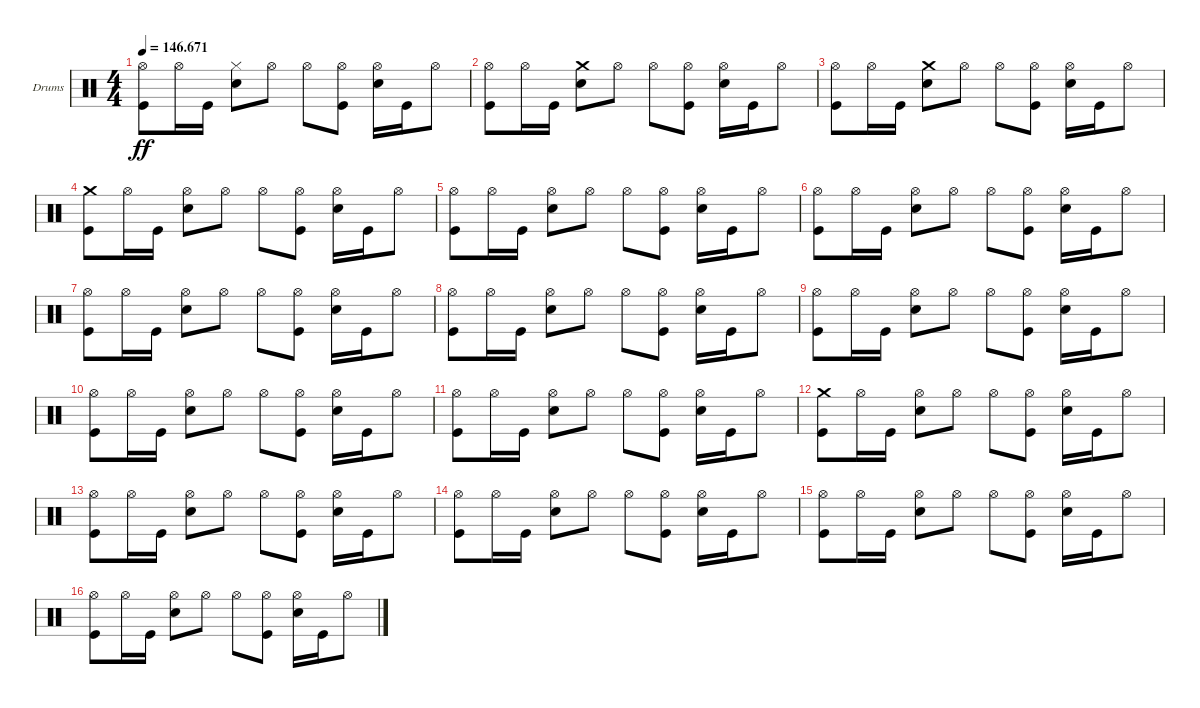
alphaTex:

\bracketExtendMode groupsimilarinstruments
\firstSystemTrackNameOrientation horizontal
\otherSystemsTrackNameOrientation horizontal
\track ("Drumkit" "Drums") {instrument percussion}
\staff {score}
\articulation defaults
\ts (4 4)
\tempo
146.671
\accidentals auto
\clef neutral
\ottava regular
\simile none
\ks c
("Hi-Hat (open)" "Kick (hit)").8{dy ff} "Hi-Hat (open)".16 "Kick (hit)".16 ("Hi-Hat (closed)" "Snare (hit) 2").8 "Hi-Hat (open)".8 "Hi-Hat (open)".8 ("Hi-Hat (open)" "Kick (hit)").8 ("Hi-Hat (open)" "Snare (hit) 2").16 "Kick (hit)".16 "Hi-Hat (open)".8 |
("Hi-Hat (open)" "Kick (hit)").8 "Hi-Hat (open)".16 "Kick (hit)".16 ("Crash medium (hit)" "Snare (hit) 2").8 "Hi-Hat (open)".8 "Hi-Hat (open)".8 ("Hi-Hat (open)" "Kick (hit)").8 ("Hi-Hat (open)" "Snare (hit) 2").16 "Kick (hit)".16 "Hi-Hat (open)".8 |
("Hi-Hat (open)" "Kick (hit)").8 "Hi-Hat (open)".16 "Kick (hit)".16 ("Crash medium (hit)" "Snare (hit) 2").8 "Hi-Hat (open)".8 "Hi-Hat (open)".8 ("Hi-Hat (open)" "Kick (hit)").8 ("Hi-Hat (open)" "Snare (hit) 2").16 "Kick (hit)".16 "Hi-Hat (open)".8 |
("Crash medium (hit)" "Kick (hit)").8 "Hi-Hat (open)".16 "Kick (hit)".16 ("Hi-Hat (open)" "Snare (hit) 2").8 "Hi-Hat (open)".8 "Hi-Hat (open)".8 ("Hi-Hat (open)" "Kick (hit)").8 ("Hi-Hat (open)" "Snare (hit) 2").16 "Kick (hit)".16 "Hi-Hat (open)".8 |
("Hi-Hat (open)" "Kick (hit)").8 "Hi-Hat (open)".16 "Kick (hit)".16 ("Hi-Hat (open)" "Snare (hit) 2").8 "Hi-Hat (open)".8 "Hi-Hat (open)".8 ("Hi-Hat (open)" "Kick (hit)").8 ("Hi-Hat (open)" "Snare (hit) 2").16 "Kick (hit)".16 "Hi-Hat (open)".8 |
("Hi-Hat (open)" "Kick (hit)").8 "Hi-Hat (open)".16 "Kick (hit)".16 ("Hi-Hat (open)" "Snare (hit) 2").8 "Hi-Hat (open)".8 "Hi-Hat (open)".8 ("Hi-Hat (open)" "Kick (hit)").8 ("Hi-Hat (open)" "Snare (hit) 2").16 "Kick (hit)".16 "Hi-Hat (open)".8 |
("Hi-Hat (open)" "Kick (hit)").8 "Hi-Hat (open)".16 "Kick (hit)".16 ("Hi-Hat (open)" "Snare (hit) 2").8 "Hi-Hat (open)".8 "Hi-Hat (open)".8 ("Hi-Hat (open)" "Kick (hit)").8 ("Hi-Hat (open)" "Snare (hit) 2").16 "Kick (hit)".16 "Hi-Hat (open)".8 |
("Hi-Hat (open)" "Kick (hit)").8 "Hi-Hat (open)".16 "Kick (hit)".16 ("Hi-Hat (open)" "Snare (hit) 2").8 "Hi-Hat (open)".8 "Hi-Hat (open)".8 ("Hi-Hat (open)" "Kick (hit)").8 ("Hi-Hat (open)" "Snare (hit) 2").16 "Kick (hit)".16 "Hi-Hat (open)".8 |
("Hi-Hat (open)" "Kick (hit)").8 "Hi-Hat (open)".16 "Kick (hit)".16 ("Hi-Hat (open)" "Snare (hit) 2").8 "Hi-Hat (open)".8 "Hi-Hat (open)".8 ("Hi-Hat (open)" "Kick (hit)").8 ("Hi-Hat (open)" "Snare (hit) 2").16 "Kick (hit)".16 "Hi-Hat (open)".8 |
("Hi-Hat (open)" "Kick (hit)").8 "Hi-Hat (open)".16 "Kick (hit)".16 ("Hi-Hat (open)" "Snare (hit) 2").8 "Hi-Hat (open)".8 "Hi-Hat (open)".8 ("Hi-Hat (open)" "Kick (hit)").8 ("Hi-Hat (open)" "Snare (hit) 2").16 "Kick (hit)".16 "Hi-Hat (open)".8 |
("Hi-Hat (open)" "Kick (hit)").8 "Hi-Hat (open)".16 "Kick (hit)".16 ("Hi-Hat (open)" "Snare (hit) 2").8 "Hi-Hat (open)".8 "Hi-Hat (open)".8 ("Hi-Hat (open)" "Kick (hit)").8 ("Hi-Hat (open)" "Snare (hit) 2").16 "Kick (hit)".16 "Hi-Hat (open)".8 |
("Crash medium (hit)" "Kick (hit)").8 "Hi-Hat (open)".16 "Kick (hit)".16 ("Hi-Hat (open)" "Snare (hit) 2").8 "Hi-Hat (open)".8 "Hi-Hat (open)".8 ("Hi-Hat (open)" "Kick (hit)").8 ("Hi-Hat (open)" "Snare (hit) 2").16 "Kick (hit)".16 "Hi-Hat (open)".8 |
("Hi-Hat (open)" "Kick (hit)").8 "Hi-Hat (open)".16 "Kick (hit)".16 ("Hi-Hat (open)" "Snare (hit) 2").8 "Hi-Hat (open)".8 "Hi-Hat (open)".8 ("Hi-Hat (open)" "Kick (hit)").8 ("Hi-Hat (open)" "Snare (hit) 2").16 "Kick (hit)".16 "Hi-Hat (open)".8 |
("Hi-Hat (open)" "Kick (hit)").8 "Hi-Hat (open)".16 "Kick (hit)".16 ("Hi-Hat (open)" "Snare (hit) 2").8 "Hi-Hat (open)".8 "Hi-Hat (open)".8 ("Hi-Hat (open)" "Kick (hit)").8 ("Hi-Hat (open)" "Snare (hit) 2").16 "Kick (hit)".16 "Hi-Hat (open)".8 |
("Hi-Hat (open)" "Kick (hit)").8 "Hi-Hat (open)".16 "Kick (hit)".16 ("Hi-Hat (open)" "Snare (hit) 2").8 "Hi-Hat (open)".8 "Hi-Hat (open)".8 ("Hi-Hat (open)" "Kick (hit)").8 ("Hi-Hat (open)" "Snare (hit) 2").16 "Kick (hit)".16 "Hi-Hat (open)".8 |
("Hi-Hat (open)" "Kick (hit)").8 "Hi-Hat (open)".16 "Kick (hit)".16 ("Hi-Hat (open)" "Snare (hit) 2").8 "Hi-Hat (open)".8 "Hi-Hat (open)".8 ("Hi-Hat (open)" "Kick (hit)").8 ("Hi-Hat (open)" "Snare (hit) 2").16 "Kick (hit)".16 "Hi-Hat (open)".8
